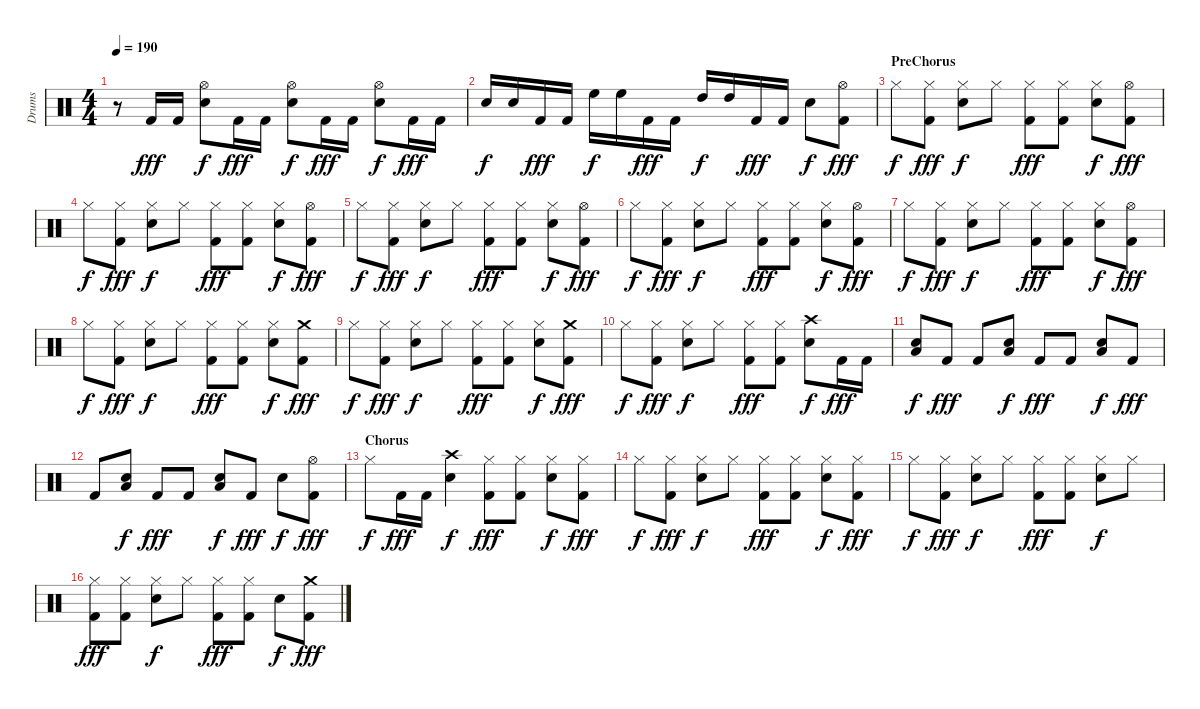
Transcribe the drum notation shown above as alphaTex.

\track ("Drums" "Drums") {instrument percussion}
\staff {score}
\articulation defaults
\ts (4 4)
\tempo 190
\clef neutral
\ks c
r.8{dy fff} "Kick (hit) 2".16 "Kick (hit) 2".16 ("Hi-Hat (open)" "Electric Snare (hit)").8{dy f} "Kick (hit) 2".16{dy fff} "Kick (hit) 2".16 ("Hi-Hat (open)" "Electric Snare (hit)").8{dy f} "Kick (hit) 2".16{dy fff} "Kick (hit) 2".16 ("Hi-Hat (open)" "Electric Snare (hit)").8{dy f} "Kick (hit) 2".16{dy fff} "Kick (hit) 2".16 |
"Electric Snare (hit)".16{dy f} "Electric Snare (hit)".16 "Kick (hit) 2".16{dy fff} "Kick (hit) 2".16 "High Floor Tom (hit)".16{dy f} "High Floor Tom (hit)".16 "Kick (hit) 2".16{dy fff} "Kick (hit) 2".16 "High Tom (hit)".16{dy f} "High Tom (hit)".16 "Kick (hit) 2".16{dy fff} "Kick (hit) 2".16 "Electric Snare (hit)".8{dy f} ("Hi-Hat (open)" "Kick (hit) 2").8{dy fff} |
\section ("" "PreChorus")
"Hi-Hat (closed)".8{dy f} ("Hi-Hat (closed)" "Kick (hit) 2").8{dy fff} ("Hi-Hat (closed)" "Electric Snare (hit)").8{dy f} "Hi-Hat (closed)".8 ("Hi-Hat (closed)" "Kick (hit) 2").8{dy fff} ("Hi-Hat (closed)" "Kick (hit) 2").8 ("Hi-Hat (closed)" "Electric Snare (hit)").8{dy f} ("Hi-Hat (open)" "Kick (hit) 2").8{dy fff} |
"Hi-Hat (closed)".8{dy f} ("Hi-Hat (closed)" "Kick (hit) 2").8{dy fff} ("Hi-Hat (closed)" "Electric Snare (hit)").8{dy f} "Hi-Hat (closed)".8 ("Hi-Hat (closed)" "Kick (hit) 2").8{dy fff} ("Hi-Hat (closed)" "Kick (hit) 2").8 ("Hi-Hat (closed)" "Electric Snare (hit)").8{dy f} ("Hi-Hat (open)" "Kick (hit) 2").8{dy fff} |
"Hi-Hat (closed)".8{dy f} ("Hi-Hat (closed)" "Kick (hit) 2").8{dy fff} ("Hi-Hat (closed)" "Electric Snare (hit)").8{dy f} "Hi-Hat (closed)".8 ("Hi-Hat (closed)" "Kick (hit) 2").8{dy fff} ("Hi-Hat (closed)" "Kick (hit) 2").8 ("Hi-Hat (closed)" "Electric Snare (hit)").8{dy f} ("Hi-Hat (open)" "Kick (hit) 2").8{dy fff} |
"Hi-Hat (closed)".8{dy f} ("Hi-Hat (closed)" "Kick (hit) 2").8{dy fff} ("Hi-Hat (closed)" "Electric Snare (hit)").8{dy f} "Hi-Hat (closed)".8 ("Hi-Hat (closed)" "Kick (hit) 2").8{dy fff} ("Hi-Hat (closed)" "Kick (hit) 2").8 ("Hi-Hat (closed)" "Electric Snare (hit)").8{dy f} ("Hi-Hat (open)" "Kick (hit) 2").8{dy fff} |
"Hi-Hat (closed)".8{dy f} ("Hi-Hat (closed)" "Kick (hit) 2").8{dy fff} ("Hi-Hat (closed)" "Electric Snare (hit)").8{dy f} "Hi-Hat (closed)".8 ("Hi-Hat (closed)" "Kick (hit) 2").8{dy fff} ("Hi-Hat (closed)" "Kick (hit) 2").8 ("Hi-Hat (closed)" "Electric Snare (hit)").8{dy f} ("Hi-Hat (open)" "Kick (hit) 2").8{dy fff} |
"Hi-Hat (closed)".8{dy f} ("Hi-Hat (closed)" "Kick (hit) 2").8{dy fff} ("Hi-Hat (closed)" "Electric Snare (hit)").8{dy f} "Hi-Hat (closed)".8 ("Hi-Hat (closed)" "Kick (hit) 2").8{dy fff} ("Hi-Hat (closed)" "Kick (hit) 2").8 ("Hi-Hat (closed)" "Electric Snare (hit)").8{dy f} ("Crash medium (hit)" "Kick (hit) 2").8{dy fff} |
"Hi-Hat (closed)".8{dy f} ("Hi-Hat (closed)" "Kick (hit) 2").8{dy fff} ("Hi-Hat (closed)" "Electric Snare (hit)").8{dy f} "Hi-Hat (closed)".8 ("Hi-Hat (closed)" "Kick (hit) 2").8{dy fff} ("Hi-Hat (closed)" "Kick (hit) 2").8 ("Hi-Hat (closed)" "Electric Snare (hit)").8{dy f} ("Crash medium (hit)" "Kick (hit) 2").8{dy fff} |
"Hi-Hat (closed)".8{dy f} ("Hi-Hat (closed)" "Kick (hit) 2").8{dy fff} ("Hi-Hat (closed)" "Electric Snare (hit)").8{dy f} "Hi-Hat (closed)".8 ("Hi-Hat (closed)" "Kick (hit) 2").8{dy fff} ("Hi-Hat (closed)" "Kick (hit) 2").8 ("Crash high (hit)" "Electric Snare (hit)").8{dy f} "Kick (hit) 2".16{dy fff} "Kick (hit) 2".16 |
("Electric Snare (hit)" "Low Tom (hit)").8{dy f} "Kick (hit) 2".8{dy fff} "Kick (hit) 2".8 ("Low Tom (hit)" "Electric Snare (hit)").8{dy f} "Kick (hit) 2".8{dy fff} "Kick (hit) 2".8 ("Electric Snare (hit)" "Low Tom (hit)").8{dy f} "Kick (hit) 2".8{dy fff} |
"Kick (hit) 2".8 ("Electric Snare (hit)" "Low Tom (hit)").8{dy f} "Kick (hit) 2".8{dy fff} "Kick (hit) 2".8 ("Low Tom (hit)" "Electric Snare (hit)").8{dy f} "Kick (hit) 2".8{dy fff} "Electric Snare (hit)".8{dy f} ("Hi-Hat (open)" "Kick (hit) 2").8{dy fff} |
\section ("" "Chorus")
"Hi-Hat (closed)".8{dy f} "Kick (hit) 2".16{dy fff} "Kick (hit) 2".16 ("Crash high (hit)" "Electric Snare (hit)").4{dy f} ("Hi-Hat (closed)" "Kick (hit) 2").8{dy fff} ("Hi-Hat (closed)" "Kick (hit) 2").8 ("Hi-Hat (closed)" "Electric Snare (hit)").8{dy f} ("Hi-Hat (closed)" "Kick (hit) 2").8{dy fff} |
"Hi-Hat (closed)".8{dy f} ("Hi-Hat (closed)" "Kick (hit) 2").8{dy fff} ("Hi-Hat (closed)" "Electric Snare (hit)").8{dy f} "Hi-Hat (closed)".8 ("Hi-Hat (closed)" "Kick (hit) 2").8{dy fff} ("Hi-Hat (closed)" "Kick (hit) 2").8 ("Hi-Hat (closed)" "Electric Snare (hit)").8{dy f} ("Hi-Hat (closed)" "Kick (hit) 2").8{dy fff} |
"Hi-Hat (closed)".8{dy f} ("Hi-Hat (closed)" "Kick (hit) 2").8{dy fff} ("Hi-Hat (closed)" "Electric Snare (hit)").8{dy f} "Hi-Hat (closed)".8 ("Hi-Hat (closed)" "Kick (hit) 2").8{dy fff} ("Hi-Hat (closed)" "Kick (hit) 2").8 ("Hi-Hat (closed)" "Electric Snare (hit)").8{dy f} "Hi-Hat (closed)".8 |
("Hi-Hat (closed)" "Kick (hit) 2").8{dy fff} ("Hi-Hat (closed)" "Kick (hit) 2").8 ("Hi-Hat (closed)" "Electric Snare (hit)").8{dy f} "Hi-Hat (closed)".8 ("Hi-Hat (closed)" "Kick (hit) 2").8{dy fff} ("Hi-Hat (closed)" "Kick (hit) 2").8 "Electric Snare (hit)".8{dy f} ("Crash medium (hit)" "Kick (hit) 2").8{dy fff}
